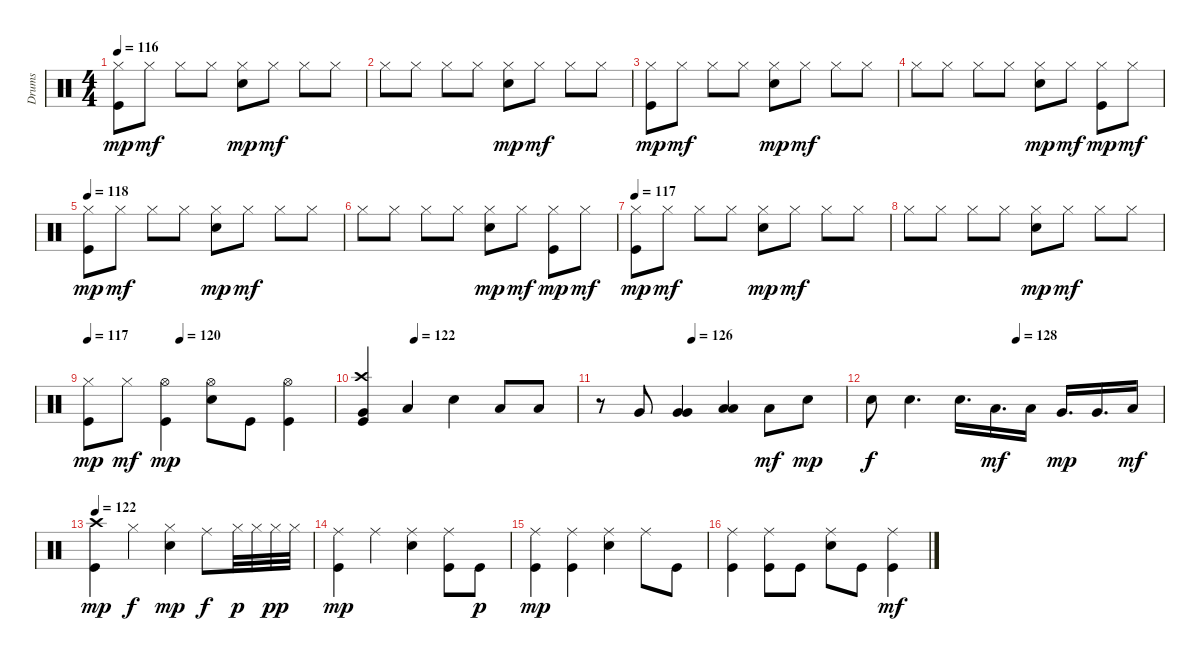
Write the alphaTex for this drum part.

\track ("Drums" "Drums") {instrument percussion}
\staff {score}
\articulation defaults
\ts (4 4)
\tempo 116
\clef neutral
\ks c
("Hi-Hat (closed)" "Kick (hit)").8{dy mp} "Hi-Hat (closed)".8{dy mf} "Hi-Hat (closed)".8 "Hi-Hat (closed)".8 ("Hi-Hat (closed)" "Snare (hit) 2").8{dy mp} "Hi-Hat (closed)".8{dy mf} "Hi-Hat (closed)".8 "Hi-Hat (closed)".8 |
"Hi-Hat (closed)".8 "Hi-Hat (closed)".8 "Hi-Hat (closed)".8 "Hi-Hat (closed)".8 ("Hi-Hat (closed)" "Snare (hit) 2").8{dy mp} "Hi-Hat (closed)".8{dy mf} "Hi-Hat (closed)".8 "Hi-Hat (closed)".8 |
("Hi-Hat (closed)" "Kick (hit)").8{dy mp} "Hi-Hat (closed)".8{dy mf} "Hi-Hat (closed)".8 "Hi-Hat (closed)".8 ("Hi-Hat (closed)" "Snare (hit) 2").8{dy mp} "Hi-Hat (closed)".8{dy mf} "Hi-Hat (closed)".8 "Hi-Hat (closed)".8 |
"Hi-Hat (closed)".8 "Hi-Hat (closed)".8 "Hi-Hat (closed)".8 "Hi-Hat (closed)".8 ("Hi-Hat (closed)" "Snare (hit) 2").8{dy mp} "Hi-Hat (closed)".8{dy mf} ("Hi-Hat (closed)" "Kick (hit)").8{dy mp} "Hi-Hat (closed)".8{dy mf} |
\tempo 118
("Hi-Hat (closed)" "Kick (hit)").8{dy mp} "Hi-Hat (closed)".8{dy mf} "Hi-Hat (closed)".8 "Hi-Hat (closed)".8 ("Hi-Hat (closed)" "Snare (hit) 2").8{dy mp} "Hi-Hat (closed)".8{dy mf} "Hi-Hat (closed)".8 "Hi-Hat (closed)".8 |
"Hi-Hat (closed)".8 "Hi-Hat (closed)".8 "Hi-Hat (closed)".8 "Hi-Hat (closed)".8 ("Hi-Hat (closed)" "Snare (hit) 2").8{dy mp} "Hi-Hat (closed)".8{dy mf} ("Hi-Hat (closed)" "Kick (hit)").8{dy mp} "Hi-Hat (closed)".8{dy mf} |
\tempo 117
("Hi-Hat (closed)" "Kick (hit)").8{dy mp} "Hi-Hat (closed)".8{dy mf} "Hi-Hat (closed)".8 "Hi-Hat (closed)".8 ("Hi-Hat (closed)" "Snare (hit) 2").8{dy mp} "Hi-Hat (closed)".8{dy mf} "Hi-Hat (closed)".8 "Hi-Hat (closed)".8 |
"Hi-Hat (closed)".8 "Hi-Hat (closed)".8 "Hi-Hat (closed)".8 "Hi-Hat (closed)".8 ("Hi-Hat (closed)" "Snare (hit) 2").8{dy mp} "Hi-Hat (closed)".8{dy mf} "Hi-Hat (closed)".8 "Hi-Hat (closed)".8 |
\tempo 117
\tempo (120 0.375)
("Hi-Hat (closed)" "Kick (hit)").8{dy mp} "Hi-Hat (closed)".8{dy mf} ("Hi-Hat (open)" "Kick (hit)").4{dy mp} ("Hi-Hat (open)" "Snare (hit) 2").8 "Kick (hit)".8 ("Hi-Hat (open)" "Kick (hit)").4 |
\tempo (122 0.25)
("Crash high (hit)" "Very Low Tom (hit)" "Kick (hit)").4 "Low Tom (hit)".4 "Snare (hit) 2".4 "Low Tom (hit)".8 "Low Tom (hit)".8 |
\tempo (126 0.375)
r.8 "Very Low Tom (hit)".8 ("Very Low Tom (hit)" "Very Low Tom (hit)").4 ("Low Tom (hit)" "Low Tom (hit)").4 "Low Tom (hit)".8{dy mf} "Snare (hit) 2".8{dy mp} |
\tempo (128 0.5)
"Snare (hit) 2".8{dy f} "Snare (hit) 2".4{d} "Snare (hit) 2".16{d} "Low Tom (hit)".16{d dy mf} "Low Tom (hit)".16 "Very Low Tom (hit)".16{d dy mp} "Very Low Tom (hit)".16{d} "Low Floor Tom (hit)".16{dy mf} |
\tempo 122
("Crash high (hit)" "Kick (hit)").4{dy mp} "Hi-Hat (closed)".4{dy f} ("Hi-Hat (closed)" "Snare (hit) 2").4{dy mp} "Ride (middle)".8{dy f} "Hi-Hat (closed)".32{dy p} "Hi-Hat (closed)".32 "Hi-Hat (closed)".32{dy pp} "Hi-Hat (closed)".32 |
("Ride (middle)" "Kick (hit)").4{dy mp} "Ride (middle)".4 ("Ride (middle)" "Snare (hit) 2").4 ("Ride (middle)" "Kick (hit)").8 "Kick (hit)".8{dy p} |
("Ride (middle)" "Kick (hit)").4{dy mp} ("Ride (middle)" "Kick (hit)").4 ("Ride (middle)" "Snare (hit) 2").4 "Ride (middle)".8 "Kick (hit)".8 |
("Ride (middle)" "Kick (hit)").4 ("Ride (middle)" "Kick (hit)").8 "Kick (hit)".8 ("Ride (middle)" "Snare (hit) 2").8 "Kick (hit)".8 ("Ride (middle)" "Kick (hit)").4{dy mf}
